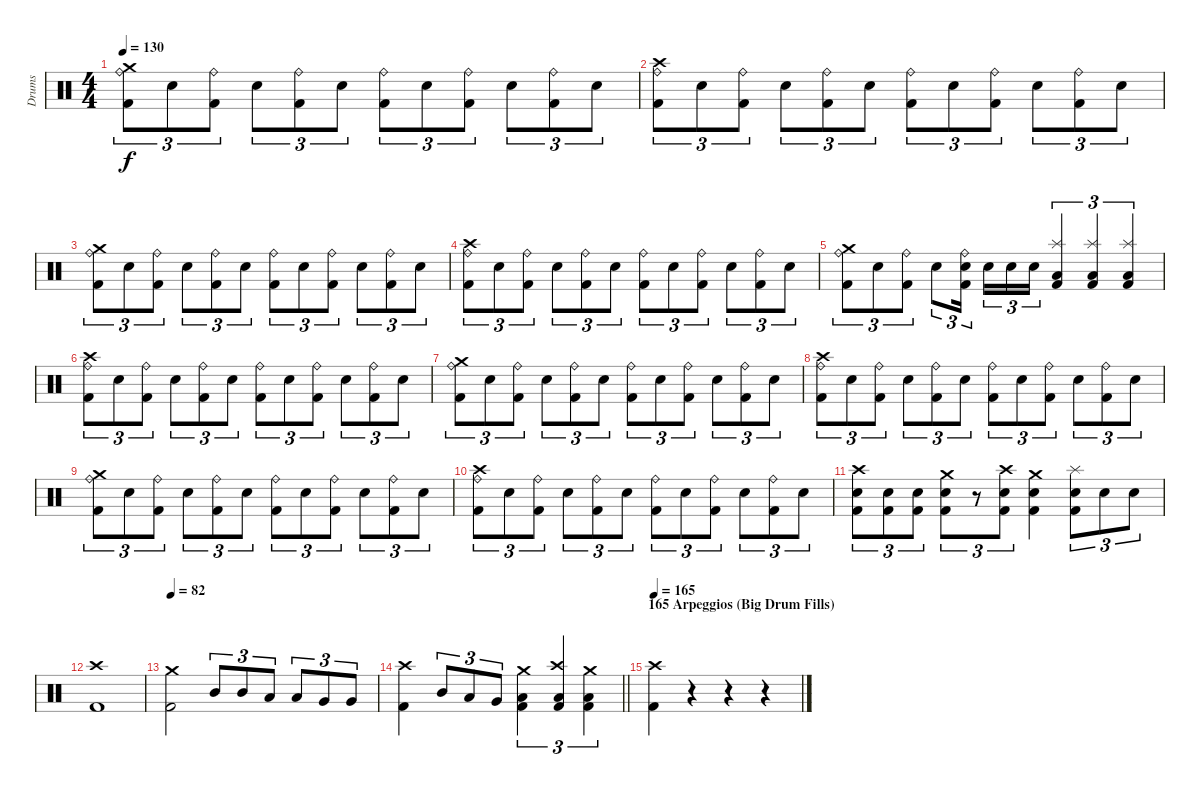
\track ("Drums" "Drums") {instrument percussion}
\staff {score}
\articulation defaults
\ts (4 4)
\tempo 130
\clef neutral
\ks c
("Crash medium (hit)" "Ride (bell)" "Kick (hit) 2").8{tu (3 2) dy f} "Snare (hit) 2".8{tu (3 2)} ("Ride (bell)" "Kick (hit) 2").8{tu (3 2)} "Snare (hit) 2".8{tu (3 2)} ("Ride (bell)" "Kick (hit) 2").8{tu (3 2)} "Snare (hit) 2".8{tu (3 2)} ("Ride (bell)" "Kick (hit) 2").8{tu (3 2)} "Snare (hit) 2".8{tu (3 2)} ("Ride (bell)" "Kick (hit) 2").8{tu (3 2)} "Snare (hit) 2".8{tu (3 2)} ("Ride (bell)" "Kick (hit) 2").8{tu (3 2)} "Snare (hit) 2".8{tu (3 2)} |
("Crash high (hit)" "Ride (bell)" "Kick (hit) 2").8{tu (3 2)} "Snare (hit) 2".8{tu (3 2)} ("Ride (bell)" "Kick (hit) 2").8{tu (3 2)} "Snare (hit) 2".8{tu (3 2)} ("Ride (bell)" "Kick (hit) 2").8{tu (3 2)} "Snare (hit) 2".8{tu (3 2)} ("Ride (bell)" "Kick (hit) 2").8{tu (3 2)} "Snare (hit) 2".8{tu (3 2)} ("Ride (bell)" "Kick (hit) 2").8{tu (3 2)} "Snare (hit) 2".8{tu (3 2)} ("Ride (bell)" "Kick (hit) 2").8{tu (3 2)} "Snare (hit) 2".8{tu (3 2)} |
("Crash medium (hit)" "Ride (bell)" "Kick (hit) 2").8{tu (3 2)} "Snare (hit) 2".8{tu (3 2)} ("Ride (bell)" "Kick (hit) 2").8{tu (3 2)} "Snare (hit) 2".8{tu (3 2)} ("Ride (bell)" "Kick (hit) 2").8{tu (3 2)} "Snare (hit) 2".8{tu (3 2)} ("Ride (bell)" "Kick (hit) 2").8{tu (3 2)} "Snare (hit) 2".8{tu (3 2)} ("Ride (bell)" "Kick (hit) 2").8{tu (3 2)} "Snare (hit) 2".8{tu (3 2)} ("Ride (bell)" "Kick (hit) 2").8{tu (3 2)} "Snare (hit) 2".8{tu (3 2)} |
("Crash high (hit)" "Ride (bell)" "Kick (hit) 2").8{tu (3 2)} "Snare (hit) 2".8{tu (3 2)} ("Ride (bell)" "Kick (hit) 2").8{tu (3 2)} "Snare (hit) 2".8{tu (3 2)} ("Ride (bell)" "Kick (hit) 2").8{tu (3 2)} "Snare (hit) 2".8{tu (3 2)} ("Ride (bell)" "Kick (hit) 2").8{tu (3 2)} "Snare (hit) 2".8{tu (3 2)} ("Ride (bell)" "Kick (hit) 2").8{tu (3 2)} "Snare (hit) 2".8{tu (3 2)} ("Ride (bell)" "Kick (hit) 2").8{tu (3 2)} "Snare (hit) 2".8{tu (3 2)} |
("Crash medium (hit)" "Ride (bell)" "Kick (hit) 2").8{tu (3 2)} "Snare (hit) 2".8{tu (3 2)} ("Ride (bell)" "Kick (hit) 2").8{tu (3 2)} "Snare (hit) 2".8{tu (3 2)} ("Ride (bell)" "Snare (hit) 2" "Kick (hit) 2").16{tu (3 2) beam splitsecondary} "Snare (hit) 2".16{tu (3 2)} "Snare (hit) 2".16{tu (3 2)} "Snare (hit) 2".16{tu (3 2)} ("Splash (hit)" "Low Floor Tom (hit)" "Kick (hit) 2").4{tu (3 2)} ("Splash (hit)" "Low Floor Tom (hit)" "Kick (hit) 2").4{tu (3 2)} ("Splash (hit)" "Low Floor Tom (hit)" "Kick (hit) 2").4{tu (3 2)} |
("Crash high (hit)" "Ride (bell)" "Kick (hit) 2").8{tu (3 2)} "Snare (hit) 2".8{tu (3 2)} ("Ride (bell)" "Kick (hit) 2").8{tu (3 2)} "Snare (hit) 2".8{tu (3 2)} ("Ride (bell)" "Kick (hit) 2").8{tu (3 2)} "Snare (hit) 2".8{tu (3 2)} ("Ride (bell)" "Kick (hit) 2").8{tu (3 2)} "Snare (hit) 2".8{tu (3 2)} ("Ride (bell)" "Kick (hit) 2").8{tu (3 2)} "Snare (hit) 2".8{tu (3 2)} ("Ride (bell)" "Kick (hit) 2").8{tu (3 2)} "Snare (hit) 2".8{tu (3 2)} |
("Crash medium (hit)" "Ride (bell)" "Kick (hit) 2").8{tu (3 2)} "Snare (hit) 2".8{tu (3 2)} ("Ride (bell)" "Kick (hit) 2").8{tu (3 2)} "Snare (hit) 2".8{tu (3 2)} ("Ride (bell)" "Kick (hit) 2").8{tu (3 2)} "Snare (hit) 2".8{tu (3 2)} ("Ride (bell)" "Kick (hit) 2").8{tu (3 2)} "Snare (hit) 2".8{tu (3 2)} ("Ride (bell)" "Kick (hit) 2").8{tu (3 2)} "Snare (hit) 2".8{tu (3 2)} ("Ride (bell)" "Kick (hit) 2").8{tu (3 2)} "Snare (hit) 2".8{tu (3 2)} |
("Crash high (hit)" "Ride (bell)" "Kick (hit) 2").8{tu (3 2)} "Snare (hit) 2".8{tu (3 2)} ("Ride (bell)" "Kick (hit) 2").8{tu (3 2)} "Snare (hit) 2".8{tu (3 2)} ("Ride (bell)" "Kick (hit) 2").8{tu (3 2)} "Snare (hit) 2".8{tu (3 2)} ("Ride (bell)" "Kick (hit) 2").8{tu (3 2)} "Snare (hit) 2".8{tu (3 2)} ("Ride (bell)" "Kick (hit) 2").8{tu (3 2)} "Snare (hit) 2".8{tu (3 2)} ("Ride (bell)" "Kick (hit) 2").8{tu (3 2)} "Snare (hit) 2".8{tu (3 2)} |
("Crash medium (hit)" "Ride (bell)" "Kick (hit) 2").8{tu (3 2)} "Snare (hit) 2".8{tu (3 2)} ("Ride (bell)" "Kick (hit) 2").8{tu (3 2)} "Snare (hit) 2".8{tu (3 2)} ("Ride (bell)" "Kick (hit) 2").8{tu (3 2)} "Snare (hit) 2".8{tu (3 2)} ("Ride (bell)" "Kick (hit) 2").8{tu (3 2)} "Snare (hit) 2".8{tu (3 2)} ("Ride (bell)" "Kick (hit) 2").8{tu (3 2)} "Snare (hit) 2".8{tu (3 2)} ("Ride (bell)" "Kick (hit) 2").8{tu (3 2)} "Snare (hit) 2".8{tu (3 2)} |
("Crash high (hit)" "Ride (bell)" "Kick (hit) 2").8{tu (3 2)} "Snare (hit) 2".8{tu (3 2)} ("Ride (bell)" "Kick (hit) 2").8{tu (3 2)} "Snare (hit) 2".8{tu (3 2)} ("Ride (bell)" "Kick (hit) 2").8{tu (3 2)} "Snare (hit) 2".8{tu (3 2)} ("Ride (bell)" "Kick (hit) 2").8{tu (3 2)} "Snare (hit) 2".8{tu (3 2)} ("Ride (bell)" "Kick (hit) 2").8{tu (3 2)} "Snare (hit) 2".8{tu (3 2)} ("Ride (bell)" "Kick (hit) 2").8{tu (3 2)} "Snare (hit) 2".8{tu (3 2)} |
("Crash high (hit)" "Snare (hit) 2" "Kick (hit) 2").8{tu (3 2)} ("Snare (hit) 2" "Kick (hit) 2").8{tu (3 2)} ("Snare (hit) 2" "Kick (hit) 2").8{tu (3 2)} ("Crash medium (hit)" "Snare (hit) 2" "Kick (hit) 2").8{tu (3 2)} r.8{tu (3 2)} ("Crash high (hit)" "Snare (hit) 2" "Kick (hit) 2").8{tu (3 2)} ("Crash medium (hit)" "Snare (hit) 2" "Kick (hit) 2").4 ("Splash (hit)" "Snare (hit) 2" "Kick (hit) 2").8{tu (3 2)} "Snare (hit) 2".8{tu (3 2)} "Snare (hit) 2".8{tu (3 2)} |
("Crash high (hit)" "Kick (hit) 2").1 |
\tempo 82
("Crash medium (hit)" "Kick (hit) 2").2 "Mid Tom (hit)".8{tu (3 2)} "Mid Tom (hit)".8{tu (3 2)} "Low Tom (hit)".8{tu (3 2)} "Low Tom (hit)".8{tu (3 2)} "Very Low Tom (hit)".8{tu (3 2)} "Very Low Tom (hit)".8{tu (3 2)} |
\barLineRight lightlight
("Crash high (hit)" "Kick (hit) 2").4 "Mid Tom (hit)".8{tu (3 2)} "Low Tom (hit)".8{tu (3 2)} "Very Low Tom (hit)".8{tu (3 2)} ("Crash medium (hit)" "Low Floor Tom (hit)" "Kick (hit) 2").4{tu (3 2)} ("Crash high (hit)" "Low Floor Tom (hit)" "Kick (hit) 2").4{tu (3 2)} ("Crash medium (hit)" "Low Floor Tom (hit)" "Kick (hit) 2").4{tu (3 2)} |
\section ("" "165 Arpeggios (Big Drum Fills)")
\tempo 165
("Crash high (hit)" "Kick (hit) 2").4 r.4 r.4 r.4
